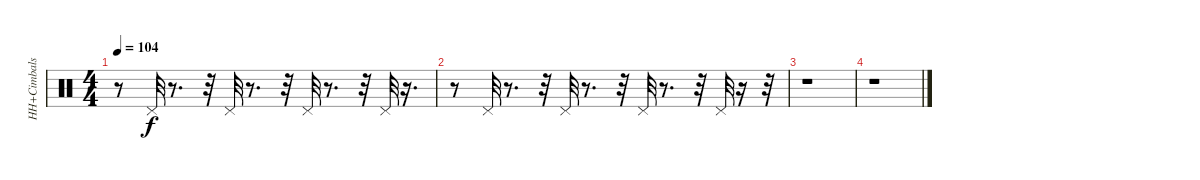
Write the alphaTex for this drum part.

\track ("HH+Cimbals" "HH+Cimbals") {instrument percussion}
\staff {score}
\articulation defaults
\ts (4 4)
\tempo 104
\clef neutral
\ks c
r.8{dy f} "Pedal Hi-Hat (hit)".32 r.8{d} r.32 "Pedal Hi-Hat (hit)".32 r.8{d} r.32 "Pedal Hi-Hat (hit)".32 r.8{d} r.32 "Pedal Hi-Hat (hit)".32 r.16{d} |
r.8 "Pedal Hi-Hat (hit)".32 r.8{d} r.32 "Pedal Hi-Hat (hit)".32 r.8{d} r.32 "Pedal Hi-Hat (hit)".32 r.8{d} r.32 "Pedal Hi-Hat (hit)".32 r.16 r.32 |
r.1 |
r.1
